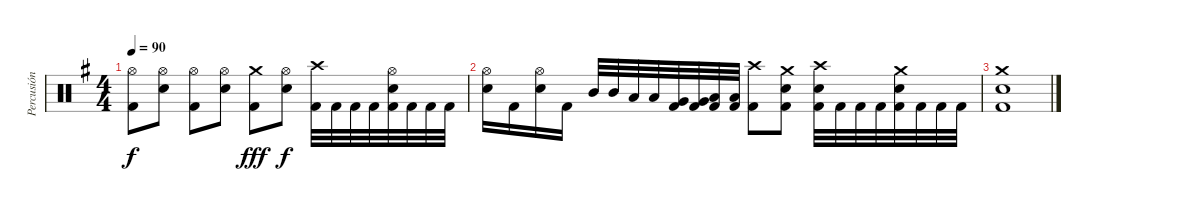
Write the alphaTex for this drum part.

\track ("Percusión" "Percusión") {instrument percussion}
\staff {score}
\articulation defaults
\ts (4 4)
\tempo 90
\clef neutral
\ks g
("Hi-Hat (open)" "Kick (hit) 2").8{dy f} ("Hi-Hat (open)" "Electric Snare (hit)").8 ("Hi-Hat (open)" "Kick (hit) 2").8 ("Hi-Hat (open)" "Electric Snare (hit)").8 ("Crash medium (hit)" "Kick (hit) 2").8{dy fff} ("Hi-Hat (open)" "Electric Snare (hit)").8{dy f} ("Crash high (hit)" "Kick (hit) 2").32 "Kick (hit) 2".32 "Kick (hit) 2".32 "Kick (hit) 2".32 ("Hi-Hat (open)" "Electric Snare (hit)" "Kick (hit) 2").32 "Kick (hit) 2".32 "Kick (hit) 2".32 "Kick (hit) 2".32 |
("Hi-Hat (open)" "Electric Snare (hit)").16 "Kick (hit) 2".16 ("Hi-Hat (open)" "Electric Snare (hit)").16 "Kick (hit) 2".16 "Mid Tom (hit)".32 "Mid Tom (hit)".32 "Low Tom (hit)".32 "Low Tom (hit)".32 ("Very Low Tom (hit)" "Kick (hit) 2").32 ("Very Low Tom (hit)" "Kick (hit) 2").32 ("Low Floor Tom (hit)" "Kick (hit) 2").32 ("Low Floor Tom (hit)" "Kick (hit) 2").32 ("Crash high (hit)" "Kick (hit) 2").8 ("Crash medium (hit)" "Electric Snare (hit)" "Kick (hit) 2").8 ("Crash high (hit)" "Electric Snare (hit)" "Kick (hit) 2").32 "Kick (hit) 2".32 "Kick (hit) 2".32 "Kick (hit) 2".32 ("Crash medium (hit)" "Electric Snare (hit)" "Kick (hit) 2").32 "Kick (hit) 2".32 "Kick (hit) 2".32 "Kick (hit) 2".32 |
("Crash medium (hit)" "Electric Snare (hit)" "Kick (hit) 2").1
